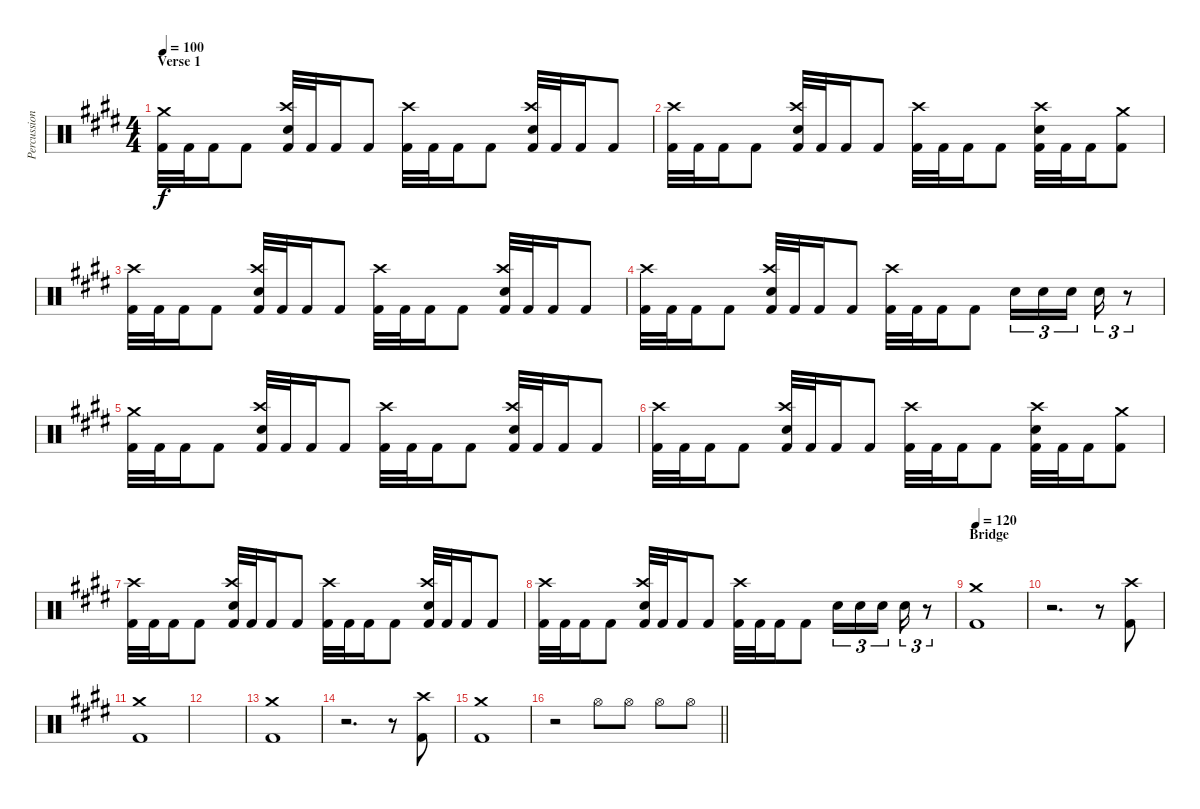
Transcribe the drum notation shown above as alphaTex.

\track ("Percussion" "Percussion") {instrument percussion}
\staff {score}
\articulation defaults
\ts (4 4)
\section ("" "Verse 1")
\tempo 100
\clef neutral
\ks c#minor
("Crash medium (hit)" "Kick (hit) 2").32{dy f} "Kick (hit) 2".32 "Kick (hit) 2".16 "Kick (hit) 2".8 ("Crash high (hit)" "Snare (hit) 2" "Kick (hit) 2").32 "Kick (hit) 2".32 "Kick (hit) 2".16 "Kick (hit) 2".8 ("Crash high (hit)" "Kick (hit) 2").32 "Kick (hit) 2".32 "Kick (hit) 2".16 "Kick (hit) 2".8 ("Crash high (hit)" "Snare (hit) 2" "Kick (hit) 2").32 "Kick (hit) 2".32 "Kick (hit) 2".16 "Kick (hit) 2".8 |
("Crash high (hit)" "Kick (hit) 2").32 "Kick (hit) 2".32 "Kick (hit) 2".16 "Kick (hit) 2".8 ("Crash high (hit)" "Snare (hit) 2" "Kick (hit) 2").32 "Kick (hit) 2".32 "Kick (hit) 2".16 "Kick (hit) 2".8 ("Crash high (hit)" "Kick (hit) 2").32 "Kick (hit) 2".32 "Kick (hit) 2".16 "Kick (hit) 2".8 ("Crash high (hit)" "Snare (hit) 2" "Kick (hit) 2").32 "Kick (hit) 2".32 "Kick (hit) 2".16 ("Crash medium (hit)" "Kick (hit) 2").8 |
("Crash high (hit)" "Kick (hit) 2").32 "Kick (hit) 2".32 "Kick (hit) 2".16 "Kick (hit) 2".8 ("Crash high (hit)" "Snare (hit) 2" "Kick (hit) 2").32 "Kick (hit) 2".32 "Kick (hit) 2".16 "Kick (hit) 2".8 ("Crash high (hit)" "Kick (hit) 2").32 "Kick (hit) 2".32 "Kick (hit) 2".16 "Kick (hit) 2".8 ("Crash high (hit)" "Snare (hit) 2" "Kick (hit) 2").32 "Kick (hit) 2".32 "Kick (hit) 2".16 "Kick (hit) 2".8 |
("Crash high (hit)" "Kick (hit) 2").32 "Kick (hit) 2".32 "Kick (hit) 2".16 "Kick (hit) 2".8 ("Crash high (hit)" "Snare (hit) 2" "Kick (hit) 2").32 "Kick (hit) 2".32 "Kick (hit) 2".16 "Kick (hit) 2".8 ("Crash high (hit)" "Kick (hit) 2").32 "Kick (hit) 2".32 "Kick (hit) 2".16 "Kick (hit) 2".8 "Snare (hit) 2".16{tu (3 2)} "Snare (hit) 2".16{tu (3 2)} "Snare (hit) 2".16{tu (3 2)} "Snare (hit) 2".16{tu (3 2)} r.8{tu (3 2)} |
("Crash medium (hit)" "Kick (hit) 2").32 "Kick (hit) 2".32 "Kick (hit) 2".16 "Kick (hit) 2".8 ("Crash high (hit)" "Snare (hit) 2" "Kick (hit) 2").32 "Kick (hit) 2".32 "Kick (hit) 2".16 "Kick (hit) 2".8 ("Crash high (hit)" "Kick (hit) 2").32 "Kick (hit) 2".32 "Kick (hit) 2".16 "Kick (hit) 2".8 ("Crash high (hit)" "Snare (hit) 2" "Kick (hit) 2").32 "Kick (hit) 2".32 "Kick (hit) 2".16 "Kick (hit) 2".8 |
("Crash high (hit)" "Kick (hit) 2").32 "Kick (hit) 2".32 "Kick (hit) 2".16 "Kick (hit) 2".8 ("Crash high (hit)" "Snare (hit) 2" "Kick (hit) 2").32 "Kick (hit) 2".32 "Kick (hit) 2".16 "Kick (hit) 2".8 ("Crash high (hit)" "Kick (hit) 2").32 "Kick (hit) 2".32 "Kick (hit) 2".16 "Kick (hit) 2".8 ("Crash high (hit)" "Snare (hit) 2" "Kick (hit) 2").32 "Kick (hit) 2".32 "Kick (hit) 2".16 ("Crash medium (hit)" "Kick (hit) 2").8 |
("Crash high (hit)" "Kick (hit) 2").32 "Kick (hit) 2".32 "Kick (hit) 2".16 "Kick (hit) 2".8 ("Crash high (hit)" "Snare (hit) 2" "Kick (hit) 2").32 "Kick (hit) 2".32 "Kick (hit) 2".16 "Kick (hit) 2".8 ("Crash high (hit)" "Kick (hit) 2").32 "Kick (hit) 2".32 "Kick (hit) 2".16 "Kick (hit) 2".8 ("Crash high (hit)" "Snare (hit) 2" "Kick (hit) 2").32 "Kick (hit) 2".32 "Kick (hit) 2".16 "Kick (hit) 2".8 |
("Crash high (hit)" "Kick (hit) 2").32 "Kick (hit) 2".32 "Kick (hit) 2".16 "Kick (hit) 2".8 ("Crash high (hit)" "Snare (hit) 2" "Kick (hit) 2").32 "Kick (hit) 2".32 "Kick (hit) 2".16 "Kick (hit) 2".8 ("Crash high (hit)" "Kick (hit) 2").32 "Kick (hit) 2".32 "Kick (hit) 2".16 "Kick (hit) 2".8 "Snare (hit) 2".16{tu (3 2)} "Snare (hit) 2".16{tu (3 2)} "Snare (hit) 2".16{tu (3 2)} "Snare (hit) 2".16{tu (3 2)} r.8{tu (3 2)} |
\section ("" "Bridge")
\tempo 120
("Crash medium (hit)" "Kick (hit) 2").1 |
r.2{d} r.8 ("Crash high (hit)" "Kick (hit) 2").8 |
("Crash medium (hit)" "Kick (hit) 2").1 |
|
("Crash medium (hit)" "Kick (hit) 2").1 |
r.2{d} r.8 ("Crash high (hit)" "Kick (hit) 2").8 |
("Crash medium (hit)" "Kick (hit) 2").1 |
\barLineRight lightlight
r.2 "Hi-Hat (open)".8 "Hi-Hat (open)".8 "Hi-Hat (open)".8 "Hi-Hat (open)".8
